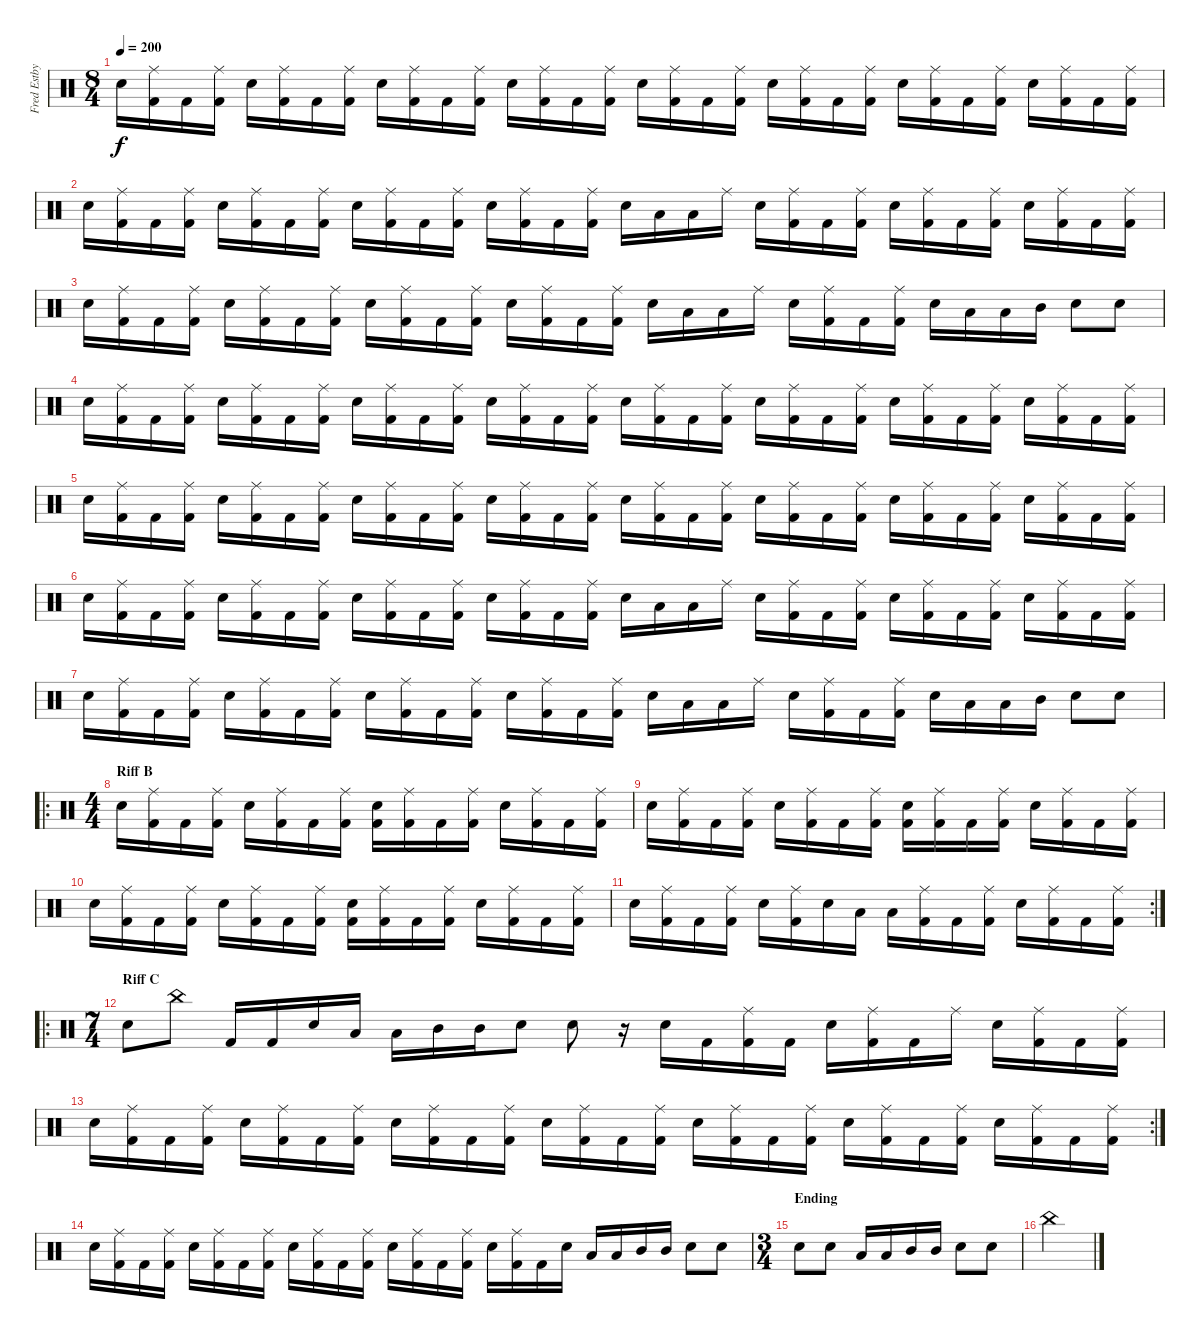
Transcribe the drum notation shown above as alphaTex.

\track ("Fred Estby" "Fred Estby") {instrument percussion}
\staff {score}
\articulation defaults
\ts (8 4)
\tempo 200
\clef neutral
\ks c "Electric Snare (hit)".16{dy f}
("Ride (middle)" "Kick (hit) 2").16 "Kick (hit) 2".16 ("Ride (middle)" "Kick (hit) 2").16 "Electric Snare (hit)".16 ("Ride (middle)" "Kick (hit) 2").16 "Kick (hit) 2".16 ("Ride (middle)" "Kick (hit) 2").16 "Electric Snare (hit)".16 ("Ride (middle)" "Kick (hit) 2").16 "Kick (hit) 2".16 ("Ride (middle)" "Kick (hit) 2").16 "Electric Snare (hit)".16 ("Ride (middle)" "Kick (hit) 2").16 "Kick (hit) 2".16 ("Ride (middle)" "Kick (hit) 2").16 "Electric Snare (hit)".16 ("Ride (middle)" "Kick (hit) 2").16 "Kick (hit) 2".16 ("Ride (middle)" "Kick (hit) 2").16 "Electric Snare (hit)".16 ("Ride (middle)" "Kick (hit) 2").16 "Kick (hit) 2".16 ("Ride (middle)" "Kick (hit) 2").16 "Electric Snare (hit)".16 ("Ride (middle)" "Kick (hit) 2").16 "Kick (hit) 2".16 ("Ride (middle)" "Kick (hit) 2").16 "Electric Snare (hit)".16 ("Ride (middle)" "Kick (hit) 2").16 "Kick (hit) 2".16 ("Ride (middle)" "Kick (hit) 2").16 |
"Electric Snare (hit)".16 ("Ride (middle)" "Kick (hit) 2").16 "Kick (hit) 2".16 ("Ride (middle)" "Kick (hit) 2").16 "Electric Snare (hit)".16 ("Ride (middle)" "Kick (hit) 2").16 "Kick (hit) 2".16 ("Ride (middle)" "Kick (hit) 2").16 "Electric Snare (hit)".16 ("Ride (middle)" "Kick (hit) 2").16 "Kick (hit) 2".16 ("Ride (middle)" "Kick (hit) 2").16 "Electric Snare (hit)".16 ("Ride (middle)" "Kick (hit) 2").16 "Kick (hit) 2".16 ("Ride (middle)" "Kick (hit) 2").16 "Electric Snare (hit)".16 "Low Tom (hit)".16 "Low Tom (hit)".16 "Ride (middle)".16 "Electric Snare (hit)".16 ("Ride (middle)" "Kick (hit) 2").16 "Kick (hit) 2".16 ("Ride (middle)" "Kick (hit) 2").16 "Electric Snare (hit)".16 ("Ride (middle)" "Kick (hit) 2").16 "Kick (hit) 2".16 ("Ride (middle)" "Kick (hit) 2").16 "Electric Snare (hit)".16 ("Ride (middle)" "Kick (hit) 2").16 "Kick (hit) 2".16 ("Ride (middle)" "Kick (hit) 2").16 |
"Electric Snare (hit)".16 ("Ride (middle)" "Kick (hit) 2").16 "Kick (hit) 2".16 ("Ride (middle)" "Kick (hit) 2").16 "Electric Snare (hit)".16 ("Ride (middle)" "Kick (hit) 2").16 "Kick (hit) 2".16 ("Ride (middle)" "Kick (hit) 2").16 "Electric Snare (hit)".16 ("Ride (middle)" "Kick (hit) 2").16 "Kick (hit) 2".16 ("Ride (middle)" "Kick (hit) 2").16 "Electric Snare (hit)".16 ("Ride (middle)" "Kick (hit) 2").16 "Kick (hit) 2".16 ("Ride (middle)" "Kick (hit) 2").16 "Electric Snare (hit)".16 "Low Tom (hit)".16 "Low Tom (hit)".16 "Ride (middle)".16 "Electric Snare (hit)".16 ("Ride (middle)" "Kick (hit) 2").16 "Kick (hit) 2".16 ("Ride (middle)" "Kick (hit) 2").16 "Electric Snare (hit)".16 "Low Tom (hit)".16 "Low Tom (hit)".16 "Mid Tom (hit)".16 "Electric Snare (hit)".8 "Electric Snare (hit)".8 |
"Electric Snare (hit)".16 ("Ride (middle)" "Kick (hit) 2").16 "Kick (hit) 2".16 ("Ride (middle)" "Kick (hit) 2").16 "Electric Snare (hit)".16 ("Ride (middle)" "Kick (hit) 2").16 "Kick (hit) 2".16 ("Ride (middle)" "Kick (hit) 2").16 "Electric Snare (hit)".16 ("Ride (middle)" "Kick (hit) 2").16 "Kick (hit) 2".16 ("Ride (middle)" "Kick (hit) 2").16 "Electric Snare (hit)".16 ("Ride (middle)" "Kick (hit) 2").16 "Kick (hit) 2".16 ("Ride (middle)" "Kick (hit) 2").16 "Electric Snare (hit)".16 ("Ride (middle)" "Kick (hit) 2").16 "Kick (hit) 2".16 ("Ride (middle)" "Kick (hit) 2").16 "Electric Snare (hit)".16 ("Ride (middle)" "Kick (hit) 2").16 "Kick (hit) 2".16 ("Ride (middle)" "Kick (hit) 2").16 "Electric Snare (hit)".16 ("Ride (middle)" "Kick (hit) 2").16 "Kick (hit) 2".16 ("Ride (middle)" "Kick (hit) 2").16 "Electric Snare (hit)".16 ("Ride (middle)" "Kick (hit) 2").16 "Kick (hit) 2".16 ("Ride (middle)" "Kick (hit) 2").16 |
"Electric Snare (hit)".16 ("Ride (middle)" "Kick (hit) 2").16 "Kick (hit) 2".16 ("Ride (middle)" "Kick (hit) 2").16 "Electric Snare (hit)".16 ("Ride (middle)" "Kick (hit) 2").16 "Kick (hit) 2".16 ("Ride (middle)" "Kick (hit) 2").16 "Electric Snare (hit)".16 ("Ride (middle)" "Kick (hit) 2").16 "Kick (hit) 2".16 ("Ride (middle)" "Kick (hit) 2").16 "Electric Snare (hit)".16 ("Ride (middle)" "Kick (hit) 2").16 "Kick (hit) 2".16 ("Ride (middle)" "Kick (hit) 2").16 "Electric Snare (hit)".16 ("Ride (middle)" "Kick (hit) 2").16 "Kick (hit) 2".16 ("Ride (middle)" "Kick (hit) 2").16 "Electric Snare (hit)".16 ("Ride (middle)" "Kick (hit) 2").16 "Kick (hit) 2".16 ("Ride (middle)" "Kick (hit) 2").16 "Electric Snare (hit)".16 ("Ride (middle)" "Kick (hit) 2").16 "Kick (hit) 2".16 ("Ride (middle)" "Kick (hit) 2").16 "Electric Snare (hit)".16 ("Ride (middle)" "Kick (hit) 2").16 "Kick (hit) 2".16 ("Ride (middle)" "Kick (hit) 2").16 |
"Electric Snare (hit)".16 ("Ride (middle)" "Kick (hit) 2").16 "Kick (hit) 2".16 ("Ride (middle)" "Kick (hit) 2").16 "Electric Snare (hit)".16 ("Ride (middle)" "Kick (hit) 2").16 "Kick (hit) 2".16 ("Ride (middle)" "Kick (hit) 2").16 "Electric Snare (hit)".16 ("Ride (middle)" "Kick (hit) 2").16 "Kick (hit) 2".16 ("Ride (middle)" "Kick (hit) 2").16 "Electric Snare (hit)".16 ("Ride (middle)" "Kick (hit) 2").16 "Kick (hit) 2".16 ("Ride (middle)" "Kick (hit) 2").16 "Electric Snare (hit)".16 "Low Tom (hit)".16 "Low Tom (hit)".16 "Ride (middle)".16 "Electric Snare (hit)".16 ("Ride (middle)" "Kick (hit) 2").16 "Kick (hit) 2".16 ("Ride (middle)" "Kick (hit) 2").16 "Electric Snare (hit)".16 ("Ride (middle)" "Kick (hit) 2").16 "Kick (hit) 2".16 ("Ride (middle)" "Kick (hit) 2").16 "Electric Snare (hit)".16 ("Ride (middle)" "Kick (hit) 2").16 "Kick (hit) 2".16 ("Ride (middle)" "Kick (hit) 2").16 |
"Electric Snare (hit)".16 ("Ride (middle)" "Kick (hit) 2").16 "Kick (hit) 2".16 ("Ride (middle)" "Kick (hit) 2").16 "Electric Snare (hit)".16 ("Ride (middle)" "Kick (hit) 2").16 "Kick (hit) 2".16 ("Ride (middle)" "Kick (hit) 2").16 "Electric Snare (hit)".16 ("Ride (middle)" "Kick (hit) 2").16 "Kick (hit) 2".16 ("Ride (middle)" "Kick (hit) 2").16 "Electric Snare (hit)".16 ("Ride (middle)" "Kick (hit) 2").16 "Kick (hit) 2".16 ("Ride (middle)" "Kick (hit) 2").16 "Electric Snare (hit)".16 "Low Tom (hit)".16 "Low Tom (hit)".16 "Ride (middle)".16 "Electric Snare (hit)".16 ("Ride (middle)" "Kick (hit) 2").16 "Kick (hit) 2".16 ("Ride (middle)" "Kick (hit) 2").16 "Electric Snare (hit)".16 "Low Tom (hit)".16 "Low Tom (hit)".16 "Mid Tom (hit)".16 "Electric Snare (hit)".8 "Electric Snare (hit)".8 |
\ro
\ts (4 4)
\section ("" "Riff B")
"Electric Snare (hit)".16 ("Ride (middle)" "Kick (hit) 2").16 "Kick (hit) 2".16 ("Ride (middle)" "Kick (hit) 2").16 "Electric Snare (hit)".16 ("Ride (middle)" "Kick (hit) 2").16 "Kick (hit) 2".16 ("Ride (middle)" "Kick (hit) 2").16 ("Electric Snare (hit)" "Kick (hit) 2").16 ("Ride (middle)" "Kick (hit) 2").16 "Kick (hit) 2".16 ("Ride (middle)" "Kick (hit) 2").16 "Electric Snare (hit)".16 ("Ride (middle)" "Kick (hit) 2").16 "Kick (hit) 2".16 ("Ride (middle)" "Kick (hit) 2").16 |
"Electric Snare (hit)".16 ("Ride (middle)" "Kick (hit) 2").16 "Kick (hit) 2".16 ("Ride (middle)" "Kick (hit) 2").16 "Electric Snare (hit)".16 ("Ride (middle)" "Kick (hit) 2").16 "Kick (hit) 2".16 ("Ride (middle)" "Kick (hit) 2").16 ("Electric Snare (hit)" "Kick (hit) 2").16 ("Ride (middle)" "Kick (hit) 2").16 "Kick (hit) 2".16 ("Ride (middle)" "Kick (hit) 2").16 "Electric Snare (hit)".16 ("Ride (middle)" "Kick (hit) 2").16 "Kick (hit) 2".16 ("Ride (middle)" "Kick (hit) 2").16 |
"Electric Snare (hit)".16 ("Ride (middle)" "Kick (hit) 2").16 "Kick (hit) 2".16 ("Ride (middle)" "Kick (hit) 2").16 "Electric Snare (hit)".16 ("Ride (middle)" "Kick (hit) 2").16 "Kick (hit) 2".16 ("Ride (middle)" "Kick (hit) 2").16 ("Electric Snare (hit)" "Kick (hit) 2").16 ("Ride (middle)" "Kick (hit) 2").16 "Kick (hit) 2".16 ("Ride (middle)" "Kick (hit) 2").16 "Electric Snare (hit)".16 ("Ride (middle)" "Kick (hit) 2").16 "Kick (hit) 2".16 ("Ride (middle)" "Kick (hit) 2").16 |
\rc 2 "Electric Snare (hit)".16
("Ride (middle)" "Kick (hit) 2").16 "Kick (hit) 2".16 ("Ride (middle)" "Kick (hit) 2").16 "Electric Snare (hit)".16 ("Ride (middle)" "Kick (hit) 2").16 "Electric Snare (hit)".16 "Low Tom (hit)".16 "Low Tom (hit)".16 ("Ride (middle)" "Kick (hit) 2").16 "Kick (hit) 2".16 ("Ride (middle)" "Kick (hit) 2").16 "Electric Snare (hit)".16 ("Ride (middle)" "Kick (hit) 2").16 "Kick (hit) 2".16 ("Ride (middle)" "Kick (hit) 2").16 |
\ro
\ts (7 4)
\section ("" "Riff C")
"Electric Snare (hit)".8 "China (hit)".8 "Kick (hit) 2".16 "Kick (hit) 2".16 "Electric Snare (hit)".16 "Low Tom (hit)".16 "Low Tom (hit)".16 "Mid Tom (hit)".16 "Mid Tom (hit)".16 "Electric Snare (hit)".8 "Electric Snare (hit)".8 r.16 "Electric Snare (hit)".16 "Kick (hit) 2".16 ("Ride (middle)" "Kick (hit) 2").16 "Kick (hit) 2".16 "Electric Snare (hit)".16 ("Ride (middle)" "Kick (hit) 2").16 "Kick (hit) 2".16 "Ride (middle)".16 "Electric Snare (hit)".16 ("Ride (middle)" "Kick (hit) 2").16 "Kick (hit) 2".16 ("Ride (middle)" "Kick (hit) 2").16 |
\rc 2 "Electric Snare (hit)".16
("Ride (middle)" "Kick (hit) 2").16 "Kick (hit) 2".16 ("Ride (middle)" "Kick (hit) 2").16 "Electric Snare (hit)".16 ("Ride (middle)" "Kick (hit) 2").16 "Kick (hit) 2".16 ("Ride (middle)" "Kick (hit) 2").16 "Electric Snare (hit)".16 ("Ride (middle)" "Kick (hit) 2").16 "Kick (hit) 2".16 ("Ride (middle)" "Kick (hit) 2").16 "Electric Snare (hit)".16 ("Ride (middle)" "Kick (hit) 2").16 "Kick (hit) 2".16 ("Ride (middle)" "Kick (hit) 2").16 "Electric Snare (hit)".16 ("Ride (middle)" "Kick (hit) 2").16 "Kick (hit) 2".16 ("Ride (middle)" "Kick (hit) 2").16 "Electric Snare (hit)".16 ("Ride (middle)" "Kick (hit) 2").16 "Kick (hit) 2".16 ("Ride (middle)" "Kick (hit) 2").16 "Electric Snare (hit)".16 ("Ride (middle)" "Kick (hit) 2").16 "Kick (hit) 2".16 ("Ride (middle)" "Kick (hit) 2").16 |
"Electric Snare (hit)".16 ("Ride (middle)" "Kick (hit) 2").16 "Kick (hit) 2".16 ("Ride (middle)" "Kick (hit) 2").16 "Electric Snare (hit)".16 ("Ride (middle)" "Kick (hit) 2").16 "Kick (hit) 2".16 ("Ride (middle)" "Kick (hit) 2").16 "Electric Snare (hit)".16 ("Ride (middle)" "Kick (hit) 2").16 "Kick (hit) 2".16 ("Ride (middle)" "Kick (hit) 2").16 "Electric Snare (hit)".16 ("Ride (middle)" "Kick (hit) 2").16 "Kick (hit) 2".16 ("Ride (middle)" "Kick (hit) 2").16 "Electric Snare (hit)".16 ("Ride (middle)" "Kick (hit) 2").16 "Kick (hit) 2".16 "Electric Snare (hit)".16 "Low Tom (hit)".16 "Low Tom (hit)".16 "Mid Tom (hit)".16 "Mid Tom (hit)".16 "Electric Snare (hit)".8 "Electric Snare (hit)".8 |
\ts (3 4)
\section ("" "Ending")
"Electric Snare (hit)".8 "Electric Snare (hit)".8 "Low Tom (hit)".16 "Low Tom (hit)".16 "Mid Tom (hit)".16 "Mid Tom (hit)".16 "Electric Snare (hit)".8 "Electric Snare (hit)".8 |
"China (hit)".2
